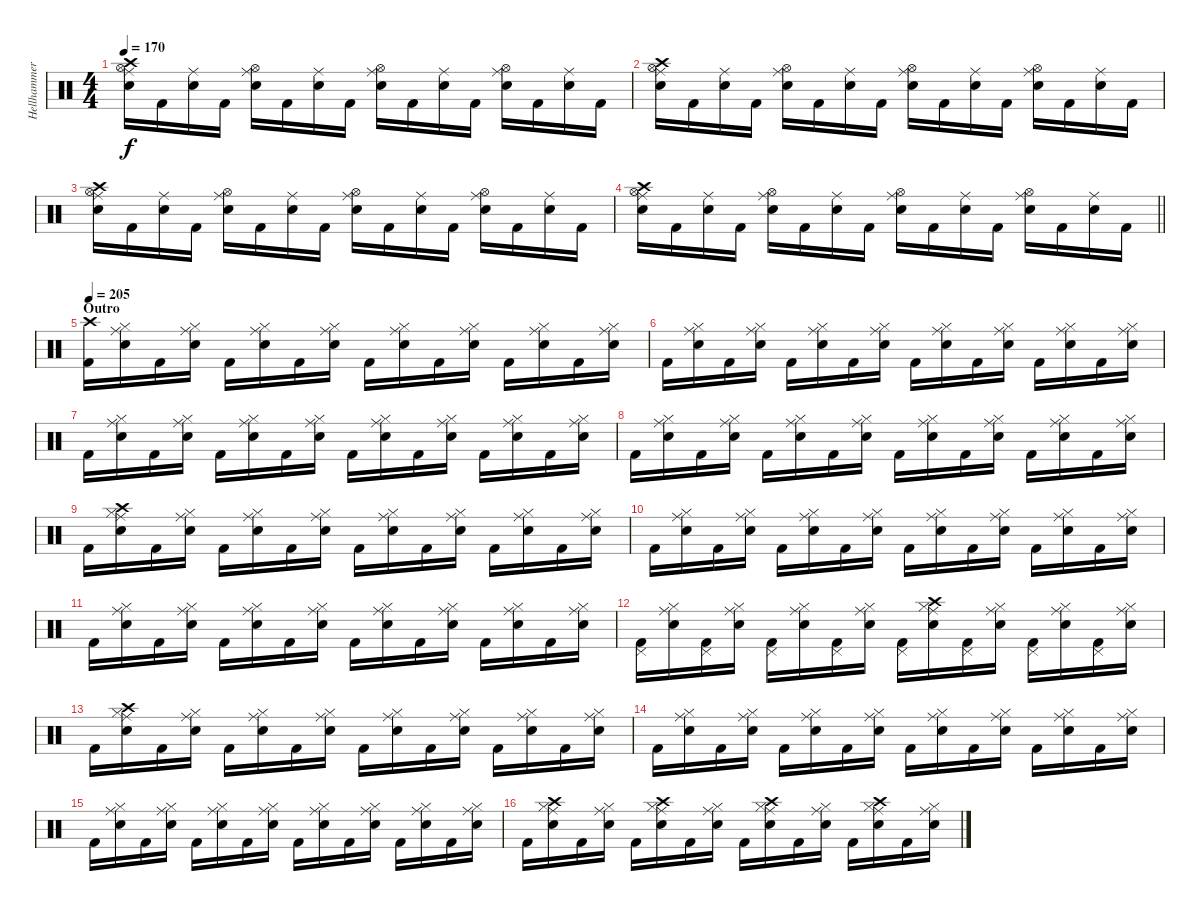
\track ("Hellhammer" "Hellhammer") {instrument percussion}
\staff {score}
\articulation defaults
\ts (4 4)
\tempo 170
\clef neutral
\ks c
("Crash high (hit)" "Hi-Hat (open)" "Ride (middle)" "Electric Snare (hit)").16{dy f} "Kick (hit) 2".16 ("Ride (middle)" "Electric Snare (hit)").16 "Kick (hit) 2".16 ("Hi-Hat (open)" "Ride (middle)" "Electric Snare (hit)").16 "Kick (hit) 2".16 ("Ride (middle)" "Electric Snare (hit)").16 "Kick (hit) 2".16 ("Hi-Hat (open)" "Ride (middle)" "Electric Snare (hit)").16 "Kick (hit) 2".16 ("Ride (middle)" "Electric Snare (hit)").16 "Kick (hit) 2".16 ("Hi-Hat (open)" "Ride (middle)" "Electric Snare (hit)").16 "Kick (hit) 2".16 ("Ride (middle)" "Electric Snare (hit)").16 "Kick (hit) 2".16 |
("Crash high (hit)" "Hi-Hat (open)" "Ride (middle)" "Electric Snare (hit)").16 "Kick (hit) 2".16 ("Ride (middle)" "Electric Snare (hit)").16 "Kick (hit) 2".16 ("Hi-Hat (open)" "Ride (middle)" "Electric Snare (hit)").16 "Kick (hit) 2".16 ("Ride (middle)" "Electric Snare (hit)").16 "Kick (hit) 2".16 ("Hi-Hat (open)" "Ride (middle)" "Electric Snare (hit)").16 "Kick (hit) 2".16 ("Ride (middle)" "Electric Snare (hit)").16 "Kick (hit) 2".16 ("Hi-Hat (open)" "Ride (middle)" "Electric Snare (hit)").16 "Kick (hit) 2".16 ("Ride (middle)" "Electric Snare (hit)").16 "Kick (hit) 2".16 |
("Crash high (hit)" "Hi-Hat (open)" "Ride (middle)" "Electric Snare (hit)").16 "Kick (hit) 2".16 ("Ride (middle)" "Electric Snare (hit)").16 "Kick (hit) 2".16 ("Hi-Hat (open)" "Ride (middle)" "Electric Snare (hit)").16 "Kick (hit) 2".16 ("Ride (middle)" "Electric Snare (hit)").16 "Kick (hit) 2".16 ("Hi-Hat (open)" "Ride (middle)" "Electric Snare (hit)").16 "Kick (hit) 2".16 ("Ride (middle)" "Electric Snare (hit)").16 "Kick (hit) 2".16 ("Hi-Hat (open)" "Ride (middle)" "Electric Snare (hit)").16 "Kick (hit) 2".16 ("Ride (middle)" "Electric Snare (hit)").16 "Kick (hit) 2".16 |
\barLineRight lightlight
("Crash high (hit)" "Hi-Hat (open)" "Ride (middle)" "Electric Snare (hit)").16 "Kick (hit) 2".16 ("Ride (middle)" "Electric Snare (hit)").16 "Kick (hit) 2".16 ("Hi-Hat (open)" "Ride (middle)" "Electric Snare (hit)").16 "Kick (hit) 2".16 ("Ride (middle)" "Electric Snare (hit)").16 "Kick (hit) 2".16 ("Hi-Hat (open)" "Ride (middle)" "Electric Snare (hit)").16 "Kick (hit) 2".16 ("Ride (middle)" "Electric Snare (hit)").16 "Kick (hit) 2".16 ("Hi-Hat (open)" "Ride (middle)" "Electric Snare (hit)").16 "Kick (hit) 2".16 ("Ride (middle)" "Electric Snare (hit)").16 "Kick (hit) 2".16 |
\section ("" "Outro")
\tempo 205
("Crash high (hit)" "Kick (hit) 2").16 ("Ride (middle)" "Hi-Hat (closed)" "Electric Snare (hit)").16 "Kick (hit) 2".16 ("Ride (middle)" "Hi-Hat (closed)" "Electric Snare (hit)").16 "Kick (hit) 2".16 ("Ride (middle)" "Hi-Hat (closed)" "Electric Snare (hit)").16 "Kick (hit) 2".16 ("Ride (middle)" "Hi-Hat (closed)" "Electric Snare (hit)").16 "Kick (hit) 2".16 ("Ride (middle)" "Hi-Hat (closed)" "Electric Snare (hit)").16 "Kick (hit) 2".16 ("Ride (middle)" "Hi-Hat (closed)" "Electric Snare (hit)").16 "Kick (hit) 2".16 ("Ride (middle)" "Hi-Hat (closed)" "Electric Snare (hit)").16 "Kick (hit) 2".16 ("Ride (middle)" "Hi-Hat (closed)" "Electric Snare (hit)").16 |
"Kick (hit) 2".16 ("Ride (middle)" "Hi-Hat (closed)" "Electric Snare (hit)").16 "Kick (hit) 2".16 ("Ride (middle)" "Hi-Hat (closed)" "Electric Snare (hit)").16 "Kick (hit) 2".16 ("Ride (middle)" "Hi-Hat (closed)" "Electric Snare (hit)").16 "Kick (hit) 2".16 ("Ride (middle)" "Hi-Hat (closed)" "Electric Snare (hit)").16 "Kick (hit) 2".16 ("Ride (middle)" "Hi-Hat (closed)" "Electric Snare (hit)").16 "Kick (hit) 2".16 ("Ride (middle)" "Hi-Hat (closed)" "Electric Snare (hit)").16 "Kick (hit) 2".16 ("Ride (middle)" "Hi-Hat (closed)" "Electric Snare (hit)").16 "Kick (hit) 2".16 ("Ride (middle)" "Hi-Hat (closed)" "Electric Snare (hit)").16 |
"Kick (hit) 2".16 ("Ride (middle)" "Hi-Hat (closed)" "Electric Snare (hit)").16 "Kick (hit) 2".16 ("Ride (middle)" "Hi-Hat (closed)" "Electric Snare (hit)").16 "Kick (hit) 2".16 ("Ride (middle)" "Hi-Hat (closed)" "Electric Snare (hit)").16 "Kick (hit) 2".16 ("Ride (middle)" "Hi-Hat (closed)" "Electric Snare (hit)").16 "Kick (hit) 2".16 ("Ride (middle)" "Hi-Hat (closed)" "Electric Snare (hit)").16 "Kick (hit) 2".16 ("Ride (middle)" "Hi-Hat (closed)" "Electric Snare (hit)").16 "Kick (hit) 2".16 ("Ride (middle)" "Hi-Hat (closed)" "Electric Snare (hit)").16 "Kick (hit) 2".16 ("Ride (middle)" "Hi-Hat (closed)" "Electric Snare (hit)").16 |
"Kick (hit) 2".16 ("Ride (middle)" "Hi-Hat (closed)" "Electric Snare (hit)").16 "Kick (hit) 2".16 ("Ride (middle)" "Hi-Hat (closed)" "Electric Snare (hit)").16 "Kick (hit) 2".16 ("Ride (middle)" "Hi-Hat (closed)" "Electric Snare (hit)").16 "Kick (hit) 2".16 ("Ride (middle)" "Hi-Hat (closed)" "Electric Snare (hit)").16 "Kick (hit) 2".16 ("Ride (middle)" "Hi-Hat (closed)" "Electric Snare (hit)").16 "Kick (hit) 2".16 ("Ride (middle)" "Hi-Hat (closed)" "Electric Snare (hit)").16 "Kick (hit) 2".16 ("Ride (middle)" "Hi-Hat (closed)" "Electric Snare (hit)").16 "Kick (hit) 2".16 ("Ride (middle)" "Hi-Hat (closed)" "Electric Snare (hit)").16 |
"Kick (hit) 2".16 ("Ride (middle)" "Crash high (hit)" "Hi-Hat (closed)" "Electric Snare (hit)").16 "Kick (hit) 2".16 ("Ride (middle)" "Hi-Hat (closed)" "Electric Snare (hit)").16 "Kick (hit) 2".16 ("Ride (middle)" "Hi-Hat (closed)" "Electric Snare (hit)").16 "Kick (hit) 2".16 ("Ride (middle)" "Hi-Hat (closed)" "Electric Snare (hit)").16 "Kick (hit) 2".16 ("Ride (middle)" "Hi-Hat (closed)" "Electric Snare (hit)").16 "Kick (hit) 2".16 ("Ride (middle)" "Hi-Hat (closed)" "Electric Snare (hit)").16 "Kick (hit) 2".16 ("Ride (middle)" "Hi-Hat (closed)" "Electric Snare (hit)").16 "Kick (hit) 2".16 ("Ride (middle)" "Hi-Hat (closed)" "Electric Snare (hit)").16 |
"Kick (hit) 2".16 ("Ride (middle)" "Hi-Hat (closed)" "Electric Snare (hit)").16 "Kick (hit) 2".16 ("Ride (middle)" "Hi-Hat (closed)" "Electric Snare (hit)").16 "Kick (hit) 2".16 ("Ride (middle)" "Hi-Hat (closed)" "Electric Snare (hit)").16 "Kick (hit) 2".16 ("Ride (middle)" "Hi-Hat (closed)" "Electric Snare (hit)").16 "Kick (hit) 2".16 ("Ride (middle)" "Hi-Hat (closed)" "Electric Snare (hit)").16 "Kick (hit) 2".16 ("Ride (middle)" "Hi-Hat (closed)" "Electric Snare (hit)").16 "Kick (hit) 2".16 ("Ride (middle)" "Hi-Hat (closed)" "Electric Snare (hit)").16 "Kick (hit) 2".16 ("Ride (middle)" "Hi-Hat (closed)" "Electric Snare (hit)").16 |
"Kick (hit) 2".16 ("Ride (middle)" "Hi-Hat (closed)" "Electric Snare (hit)").16 "Kick (hit) 2".16 ("Ride (middle)" "Hi-Hat (closed)" "Electric Snare (hit)").16 "Kick (hit) 2".16 ("Ride (middle)" "Hi-Hat (closed)" "Electric Snare (hit)").16 "Kick (hit) 2".16 ("Ride (middle)" "Hi-Hat (closed)" "Electric Snare (hit)").16 "Kick (hit) 2".16 ("Ride (middle)" "Hi-Hat (closed)" "Electric Snare (hit)").16 "Kick (hit) 2".16 ("Ride (middle)" "Hi-Hat (closed)" "Electric Snare (hit)").16 "Kick (hit) 2".16 ("Ride (middle)" "Hi-Hat (closed)" "Electric Snare (hit)").16 "Kick (hit) 2".16 ("Ride (middle)" "Hi-Hat (closed)" "Electric Snare (hit)").16 |
("Pedal Hi-Hat (hit)" "Kick (hit) 2").16 ("Ride (middle)" "Hi-Hat (closed)" "Electric Snare (hit)").16 ("Pedal Hi-Hat (hit)" "Kick (hit) 2").16 ("Ride (middle)" "Hi-Hat (closed)" "Electric Snare (hit)").16 ("Pedal Hi-Hat (hit)" "Kick (hit) 2").16 ("Ride (middle)" "Hi-Hat (closed)" "Electric Snare (hit)").16 ("Pedal Hi-Hat (hit)" "Kick (hit) 2").16 ("Ride (middle)" "Hi-Hat (closed)" "Electric Snare (hit)").16 ("Pedal Hi-Hat (hit)" "Kick (hit) 2").16 ("Ride (middle)" "Crash high (hit)" "Hi-Hat (closed)" "Electric Snare (hit)").16 ("Pedal Hi-Hat (hit)" "Kick (hit) 2").16 ("Ride (middle)" "Hi-Hat (closed)" "Electric Snare (hit)").16 ("Pedal Hi-Hat (hit)" "Kick (hit) 2").16 ("Ride (middle)" "Hi-Hat (closed)" "Electric Snare (hit)").16 ("Pedal Hi-Hat (hit)" "Kick (hit) 2").16 ("Ride (middle)" "Hi-Hat (closed)" "Electric Snare (hit)").16 |
"Kick (hit) 2".16 ("Ride (middle)" "Crash high (hit)" "Hi-Hat (closed)" "Electric Snare (hit)").16 "Kick (hit) 2".16 ("Ride (middle)" "Hi-Hat (closed)" "Electric Snare (hit)").16 "Kick (hit) 2".16 ("Ride (middle)" "Hi-Hat (closed)" "Electric Snare (hit)").16 "Kick (hit) 2".16 ("Ride (middle)" "Hi-Hat (closed)" "Electric Snare (hit)").16 "Kick (hit) 2".16 ("Ride (middle)" "Hi-Hat (closed)" "Electric Snare (hit)").16 "Kick (hit) 2".16 ("Ride (middle)" "Hi-Hat (closed)" "Electric Snare (hit)").16 "Kick (hit) 2".16 ("Ride (middle)" "Hi-Hat (closed)" "Electric Snare (hit)").16 "Kick (hit) 2".16 ("Ride (middle)" "Hi-Hat (closed)" "Electric Snare (hit)").16 |
"Kick (hit) 2".16 ("Ride (middle)" "Hi-Hat (closed)" "Electric Snare (hit)").16 "Kick (hit) 2".16 ("Ride (middle)" "Hi-Hat (closed)" "Electric Snare (hit)").16 "Kick (hit) 2".16 ("Ride (middle)" "Hi-Hat (closed)" "Electric Snare (hit)").16 "Kick (hit) 2".16 ("Ride (middle)" "Hi-Hat (closed)" "Electric Snare (hit)").16 "Kick (hit) 2".16 ("Ride (middle)" "Hi-Hat (closed)" "Electric Snare (hit)").16 "Kick (hit) 2".16 ("Ride (middle)" "Hi-Hat (closed)" "Electric Snare (hit)").16 "Kick (hit) 2".16 ("Ride (middle)" "Hi-Hat (closed)" "Electric Snare (hit)").16 "Kick (hit) 2".16 ("Ride (middle)" "Hi-Hat (closed)" "Electric Snare (hit)").16 |
"Kick (hit) 2".16 ("Ride (middle)" "Hi-Hat (closed)" "Electric Snare (hit)").16 "Kick (hit) 2".16 ("Ride (middle)" "Hi-Hat (closed)" "Electric Snare (hit)").16 "Kick (hit) 2".16 ("Ride (middle)" "Hi-Hat (closed)" "Electric Snare (hit)").16 "Kick (hit) 2".16 ("Ride (middle)" "Hi-Hat (closed)" "Electric Snare (hit)").16 "Kick (hit) 2".16 ("Ride (middle)" "Hi-Hat (closed)" "Electric Snare (hit)").16 "Kick (hit) 2".16 ("Ride (middle)" "Hi-Hat (closed)" "Electric Snare (hit)").16 "Kick (hit) 2".16 ("Ride (middle)" "Hi-Hat (closed)" "Electric Snare (hit)").16 "Kick (hit) 2".16 ("Ride (middle)" "Hi-Hat (closed)" "Electric Snare (hit)").16 |
"Kick (hit) 2".16 ("Ride (middle)" "Crash high (hit)" "Hi-Hat (closed)" "Electric Snare (hit)").16 "Kick (hit) 2".16 ("Ride (middle)" "Hi-Hat (closed)" "Electric Snare (hit)").16 "Kick (hit) 2".16 ("Ride (middle)" "Crash high (hit)" "Hi-Hat (closed)" "Electric Snare (hit)").16 "Kick (hit) 2".16 ("Ride (middle)" "Hi-Hat (closed)" "Electric Snare (hit)").16 "Kick (hit) 2".16 ("Ride (middle)" "Crash high (hit)" "Hi-Hat (closed)" "Electric Snare (hit)").16 "Kick (hit) 2".16 ("Ride (middle)" "Hi-Hat (closed)" "Electric Snare (hit)").16 "Kick (hit) 2".16 ("Ride (middle)" "Crash high (hit)" "Hi-Hat (closed)" "Electric Snare (hit)").16 "Kick (hit) 2".16 ("Ride (middle)" "Hi-Hat (closed)" "Electric Snare (hit)").16
